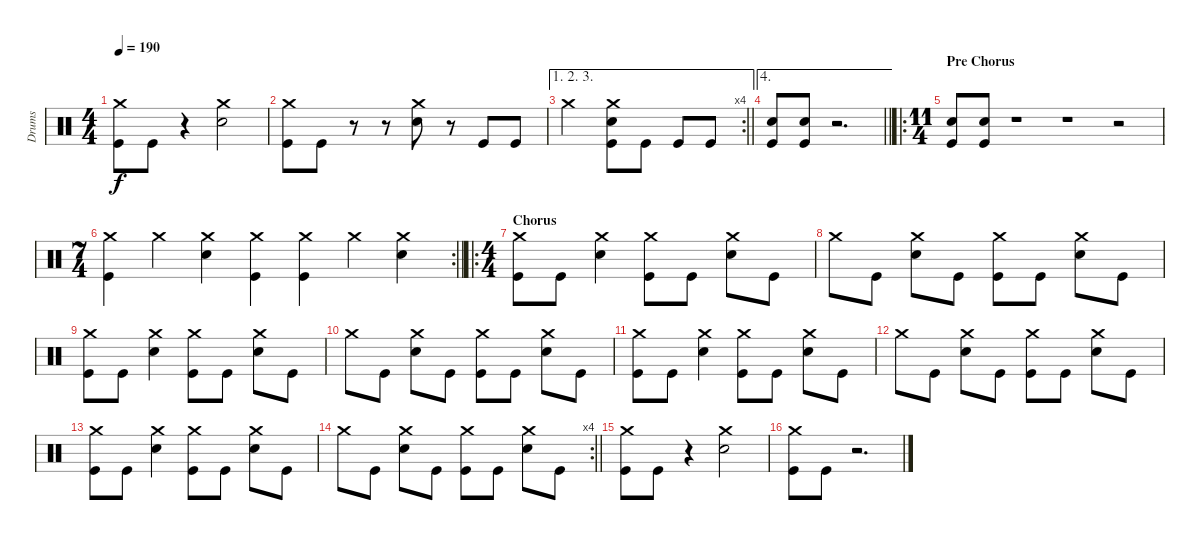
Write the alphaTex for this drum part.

\track ("Drums" "Drums") {instrument percussion}
\staff {score}
\articulation defaults
\ts (4 4)
\tempo 190
\clef neutral
\ks c
("Crash medium (hit)" "Kick (hit)").8{dy f} "Kick (hit)".8 r.4 ("Crash medium (hit)" "Snare (hit) 2").2 |
("Crash medium (hit)" "Kick (hit)").8 "Kick (hit)".8 r.8 r.8 ("Crash medium (hit)" "Snare (hit) 2").8 r.8 "Kick (hit)".8 "Kick (hit)".8 |
\ae (1 2 3)
\rc 4
\barLineRight lightlight "Crash medium (hit)".2
("Crash medium (hit)" "Snare (hit) 2" "Kick (hit)").8 "Kick (hit)".8 "Kick (hit)".8 "Kick (hit)".8 |
\ae 4
\barLineRight lightlight
("Snare (hit) 2" "Kick (hit)").8 ("Snare (hit) 2" "Kick (hit)").8 r.2{d} |
\ro
\ts (11 4)
\section ("" "Pre Chorus")
("Snare (hit) 2" "Kick (hit)").8 ("Snare (hit) 2" "Kick (hit)").8 r.1 r.1 r.2 |
\rc 2
\ts (7 4)
\barLineRight lightlight
("Crash medium (hit)" "Kick (hit)").4 "Crash medium (hit)".4 ("Crash medium (hit)" "Snare (hit) 2").4 ("Crash medium (hit)" "Kick (hit)").4 ("Crash medium (hit)" "Kick (hit)").4 "Crash medium (hit)".4 ("Crash medium (hit)" "Snare (hit) 2").4 |
\ro
\ts (4 4)
\section ("" "Chorus")
("Crash medium (hit)" "Kick (hit)").8 "Kick (hit)".8 ("Crash medium (hit)" "Snare (hit) 2").4 ("Crash medium (hit)" "Kick (hit)").8 "Kick (hit)".8 ("Crash medium (hit)" "Snare (hit) 2").8 "Kick (hit)".8 |
"Crash medium (hit)".8 "Kick (hit)".8 ("Crash medium (hit)" "Snare (hit) 2").8 "Kick (hit)".8 ("Crash medium (hit)" "Kick (hit)").8 "Kick (hit)".8 ("Crash medium (hit)" "Snare (hit) 2").8 "Kick (hit)".8 |
("Crash medium (hit)" "Kick (hit)").8 "Kick (hit)".8 ("Crash medium (hit)" "Snare (hit) 2").4 ("Crash medium (hit)" "Kick (hit)").8 "Kick (hit)".8 ("Crash medium (hit)" "Snare (hit) 2").8 "Kick (hit)".8 |
"Crash medium (hit)".8 "Kick (hit)".8 ("Crash medium (hit)" "Snare (hit) 2").8 "Kick (hit)".8 ("Crash medium (hit)" "Kick (hit)").8 "Kick (hit)".8 ("Crash medium (hit)" "Snare (hit) 2").8 "Kick (hit)".8 |
("Crash medium (hit)" "Kick (hit)").8 "Kick (hit)".8 ("Crash medium (hit)" "Snare (hit) 2").4 ("Crash medium (hit)" "Kick (hit)").8 "Kick (hit)".8 ("Crash medium (hit)" "Snare (hit) 2").8 "Kick (hit)".8 |
"Crash medium (hit)".8 "Kick (hit)".8 ("Crash medium (hit)" "Snare (hit) 2").8 "Kick (hit)".8 ("Crash medium (hit)" "Kick (hit)").8 "Kick (hit)".8 ("Crash medium (hit)" "Snare (hit) 2").8 "Kick (hit)".8 |
("Crash medium (hit)" "Kick (hit)").8 "Kick (hit)".8 ("Crash medium (hit)" "Snare (hit) 2").4 ("Crash medium (hit)" "Kick (hit)").8 "Kick (hit)".8 ("Crash medium (hit)" "Snare (hit) 2").8 "Kick (hit)".8 |
\rc 4
\barLineRight lightlight "Crash medium (hit)".8 "Kick (hit)".8
("Crash medium (hit)" "Snare (hit) 2").8 "Kick (hit)".8 ("Crash medium (hit)" "Kick (hit)").8 "Kick (hit)".8 ("Crash medium (hit)" "Snare (hit) 2").8 "Kick (hit)".8 |
("Crash medium (hit)" "Kick (hit)").8 "Kick (hit)".8 r.4 ("Crash medium (hit)" "Snare (hit) 2").2 |
("Crash medium (hit)" "Kick (hit)").8 "Kick (hit)".8 r.2{d}
